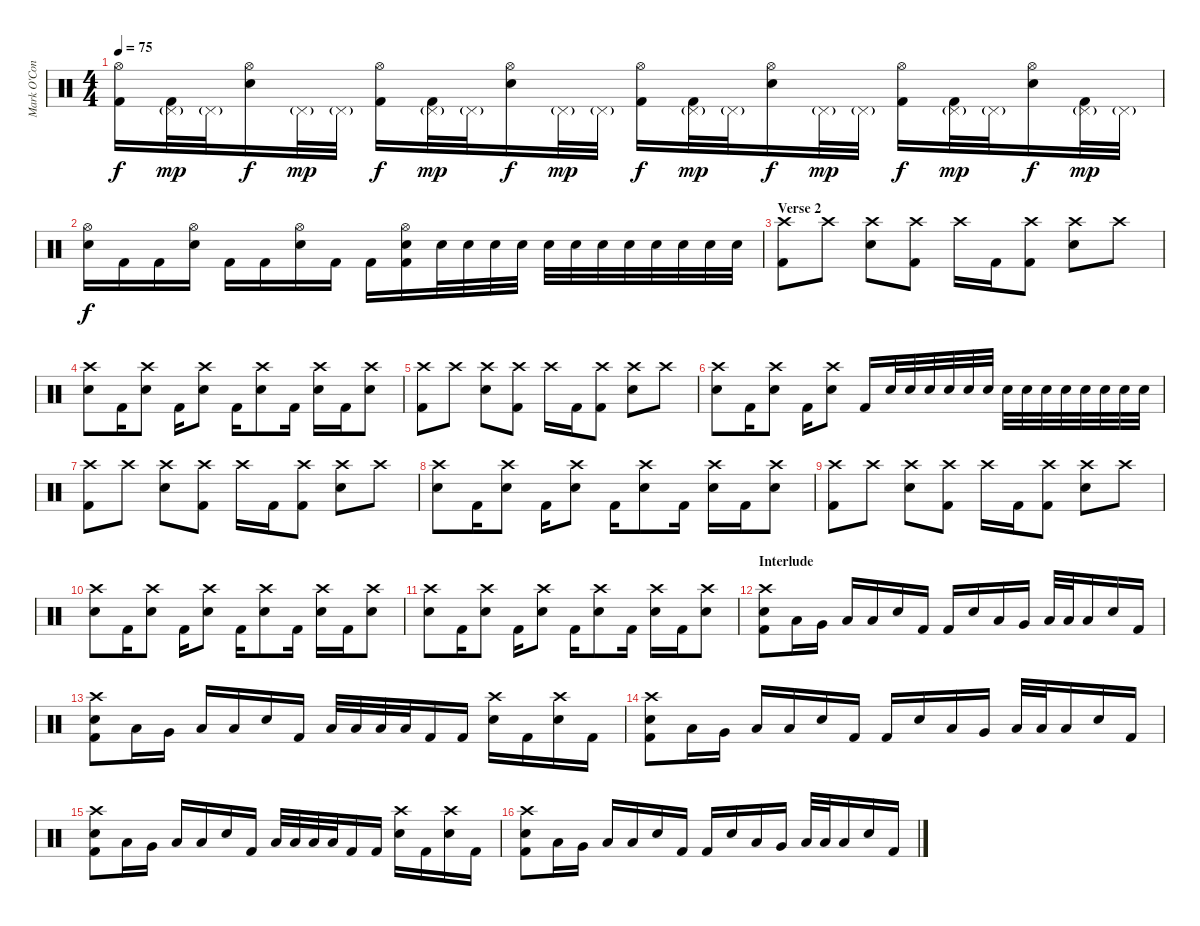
\track ("Mark O'Connell (Drums)" "Mark O'Con") {instrument percussion}
\staff {score}
\articulation defaults
\ts (4 4)
\tempo 75
\clef neutral
\ks c
("Hi-Hat (open)" "Kick (hit) 2").16{dy f} ("Pedal Hi-Hat (hit)"{g} "Kick (hit) 2").32{dy mp} "Pedal Hi-Hat (hit)"{g}.32 ("Hi-Hat (open)" "Electric Snare (hit)").16{dy f} "Pedal Hi-Hat (hit)"{g}.32{dy mp} "Pedal Hi-Hat (hit)"{g}.32 ("Hi-Hat (open)" "Kick (hit) 2").16{dy f} ("Pedal Hi-Hat (hit)"{g} "Kick (hit) 2").32{dy mp} "Pedal Hi-Hat (hit)"{g}.32 ("Hi-Hat (open)" "Electric Snare (hit)").16{dy f} "Pedal Hi-Hat (hit)"{g}.32{dy mp} "Pedal Hi-Hat (hit)"{g}.32 ("Hi-Hat (open)" "Kick (hit) 2").16{dy f} ("Pedal Hi-Hat (hit)"{g} "Kick (hit) 2").32{dy mp} "Pedal Hi-Hat (hit)"{g}.32 ("Hi-Hat (open)" "Electric Snare (hit)").16{dy f} "Pedal Hi-Hat (hit)"{g}.32{dy mp} "Pedal Hi-Hat (hit)"{g}.32 ("Hi-Hat (open)" "Kick (hit) 2").16{dy f} ("Pedal Hi-Hat (hit)"{g} "Kick (hit) 2").32{dy mp} "Pedal Hi-Hat (hit)"{g}.32 ("Hi-Hat (open)" "Electric Snare (hit)").16{dy f} ("Pedal Hi-Hat (hit)"{g} "Kick (hit) 2").32{dy mp} "Pedal Hi-Hat (hit)"{g}.32 |
("Hi-Hat (open)" "Electric Snare (hit)").16{dy f} "Kick (hit) 2".16 "Kick (hit) 2".16 ("Hi-Hat (open)" "Electric Snare (hit)").16 "Kick (hit) 2".16 "Kick (hit) 2".16 ("Hi-Hat (open)" "Electric Snare (hit)").16 "Kick (hit) 2".16 "Kick (hit) 2".16 ("Hi-Hat (open)" "Electric Snare (hit)" "Kick (hit) 2").16 "Electric Snare (hit)".32 "Electric Snare (hit)".32 "Electric Snare (hit)".32 "Electric Snare (hit)".32 "Electric Snare (hit)".32 "Electric Snare (hit)".32 "Electric Snare (hit)".32 "Electric Snare (hit)".32 "Electric Snare (hit)".32 "Electric Snare (hit)".32 "Electric Snare (hit)".32 "Electric Snare (hit)".32 |
\section ("" "Verse 2")
("Crash high (hit)" "Kick (hit) 2").8 "Crash high (hit)".8 ("Crash high (hit)" "Electric Snare (hit)").8 ("Crash high (hit)" "Kick (hit) 2").8 "Crash high (hit)".16 "Kick (hit) 2".16 ("Crash high (hit)" "Kick (hit) 2").8 ("Crash high (hit)" "Electric Snare (hit)").8 "Crash high (hit)".8 |
("Crash high (hit)" "Electric Snare (hit)").8 "Kick (hit) 2".16 ("Crash high (hit)" "Electric Snare (hit)").8 "Kick (hit) 2".16 ("Crash high (hit)" "Electric Snare (hit)").8 "Kick (hit) 2".16 ("Crash high (hit)" "Electric Snare (hit)").8 "Kick (hit) 2".16 ("Crash high (hit)" "Electric Snare (hit)").16 "Kick (hit) 2".16 ("Crash high (hit)" "Electric Snare (hit)").8 |
("Crash high (hit)" "Kick (hit) 2").8 "Crash high (hit)".8 ("Crash high (hit)" "Electric Snare (hit)").8 ("Crash high (hit)" "Kick (hit) 2").8 "Crash high (hit)".16 "Kick (hit) 2".16 ("Crash high (hit)" "Kick (hit) 2").8 ("Crash high (hit)" "Electric Snare (hit)").8 "Crash high (hit)".8 |
("Crash high (hit)" "Electric Snare (hit)").8 "Kick (hit) 2".16 ("Crash high (hit)" "Electric Snare (hit)").8 "Kick (hit) 2".16 ("Crash high (hit)" "Electric Snare (hit)").8 "Kick (hit) 2".16 "Electric Snare (hit)".32 "Electric Snare (hit)".32 "Electric Snare (hit)".32 "Electric Snare (hit)".32 "Electric Snare (hit)".32 "Electric Snare (hit)".32 "Electric Snare (hit)".32 "Electric Snare (hit)".32 "Electric Snare (hit)".32 "Electric Snare (hit)".32 "Electric Snare (hit)".32 "Electric Snare (hit)".32 "Electric Snare (hit)".32 "Electric Snare (hit)".32 |
("Crash high (hit)" "Kick (hit) 2").8 "Crash high (hit)".8 ("Crash high (hit)" "Electric Snare (hit)").8 ("Crash high (hit)" "Kick (hit) 2").8 "Crash high (hit)".16 "Kick (hit) 2".16 ("Crash high (hit)" "Kick (hit) 2").8 ("Crash high (hit)" "Electric Snare (hit)").8 "Crash high (hit)".8 |
("Crash high (hit)" "Electric Snare (hit)").8 "Kick (hit) 2".16 ("Crash high (hit)" "Electric Snare (hit)").8 "Kick (hit) 2".16 ("Crash high (hit)" "Electric Snare (hit)").8 "Kick (hit) 2".16 ("Crash high (hit)" "Electric Snare (hit)").8 "Kick (hit) 2".16 ("Crash high (hit)" "Electric Snare (hit)").16 "Kick (hit) 2".16 ("Crash high (hit)" "Electric Snare (hit)").8 |
("Crash high (hit)" "Kick (hit) 2").8 "Crash high (hit)".8 ("Crash high (hit)" "Electric Snare (hit)").8 ("Crash high (hit)" "Kick (hit) 2").8 "Crash high (hit)".16 "Kick (hit) 2".16 ("Crash high (hit)" "Kick (hit) 2").8 ("Crash high (hit)" "Electric Snare (hit)").8 "Crash high (hit)".8 |
("Crash high (hit)" "Electric Snare (hit)").8 "Kick (hit) 2".16 ("Crash high (hit)" "Electric Snare (hit)").8 "Kick (hit) 2".16 ("Crash high (hit)" "Electric Snare (hit)").8 "Kick (hit) 2".16 ("Crash high (hit)" "Electric Snare (hit)").8 "Kick (hit) 2".16 ("Crash high (hit)" "Electric Snare (hit)").16 "Kick (hit) 2".16 ("Crash high (hit)" "Electric Snare (hit)").8 |
("Crash high (hit)" "Electric Snare (hit)").8 "Kick (hit) 2".16 ("Crash high (hit)" "Electric Snare (hit)").8 "Kick (hit) 2".16 ("Crash high (hit)" "Electric Snare (hit)").8 "Kick (hit) 2".16 ("Crash high (hit)" "Electric Snare (hit)").8 "Kick (hit) 2".16 ("Crash high (hit)" "Electric Snare (hit)").16 "Kick (hit) 2".16 ("Crash high (hit)" "Electric Snare (hit)").8 |
\section ("" "Interlude")
("Crash high (hit)" "Electric Snare (hit)" "Kick (hit) 2").8 "Low Tom (hit)".16 "Very Low Tom (hit)".16 "Low Floor Tom (hit)".16 "Low Floor Tom (hit)".16 "Electric Snare (hit)".16 "Kick (hit) 2".16 "Kick (hit) 2".16 "Electric Snare (hit)".16 "Low Tom (hit)".16 "Very Low Tom (hit)".16 "Low Floor Tom (hit)".32 "Low Floor Tom (hit)".32 "Low Floor Tom (hit)".16 "Electric Snare (hit)".16 "Kick (hit) 2".16 |
("Crash high (hit)" "Electric Snare (hit)" "Kick (hit) 2").8 "Low Tom (hit)".16 "Very Low Tom (hit)".16 "Low Floor Tom (hit)".16 "Low Floor Tom (hit)".16 "Electric Snare (hit)".16 "Kick (hit) 2".16 "Low Floor Tom (hit)".32 "Low Floor Tom (hit)".32 "Low Floor Tom (hit)".32 "Low Floor Tom (hit)".32 "Kick (hit) 2".16 "Kick (hit) 2".16 ("Crash high (hit)" "Electric Snare (hit)").16 "Kick (hit) 2".16 ("Crash high (hit)" "Electric Snare (hit)").16 "Kick (hit) 2".16 |
("Crash high (hit)" "Electric Snare (hit)" "Kick (hit) 2").8 "Low Tom (hit)".16 "Very Low Tom (hit)".16 "Low Floor Tom (hit)".16 "Low Floor Tom (hit)".16 "Electric Snare (hit)".16 "Kick (hit) 2".16 "Kick (hit) 2".16 "Electric Snare (hit)".16 "Low Tom (hit)".16 "Very Low Tom (hit)".16 "Low Floor Tom (hit)".32 "Low Floor Tom (hit)".32 "Low Floor Tom (hit)".16 "Electric Snare (hit)".16 "Kick (hit) 2".16 |
("Crash high (hit)" "Electric Snare (hit)" "Kick (hit) 2").8 "Low Tom (hit)".16 "Very Low Tom (hit)".16 "Low Floor Tom (hit)".16 "Low Floor Tom (hit)".16 "Electric Snare (hit)".16 "Kick (hit) 2".16 "Low Floor Tom (hit)".32 "Low Floor Tom (hit)".32 "Low Floor Tom (hit)".32 "Low Floor Tom (hit)".32 "Kick (hit) 2".16 "Kick (hit) 2".16 ("Crash high (hit)" "Electric Snare (hit)").16 "Kick (hit) 2".16 ("Crash high (hit)" "Electric Snare (hit)").16 "Kick (hit) 2".16 |
("Crash high (hit)" "Electric Snare (hit)" "Kick (hit) 2").8 "Low Tom (hit)".16 "Very Low Tom (hit)".16 "Low Floor Tom (hit)".16 "Low Floor Tom (hit)".16 "Electric Snare (hit)".16 "Kick (hit) 2".16 "Kick (hit) 2".16 "Electric Snare (hit)".16 "Low Tom (hit)".16 "Very Low Tom (hit)".16 "Low Floor Tom (hit)".32 "Low Floor Tom (hit)".32 "Low Floor Tom (hit)".16 "Electric Snare (hit)".16 "Kick (hit) 2".16
